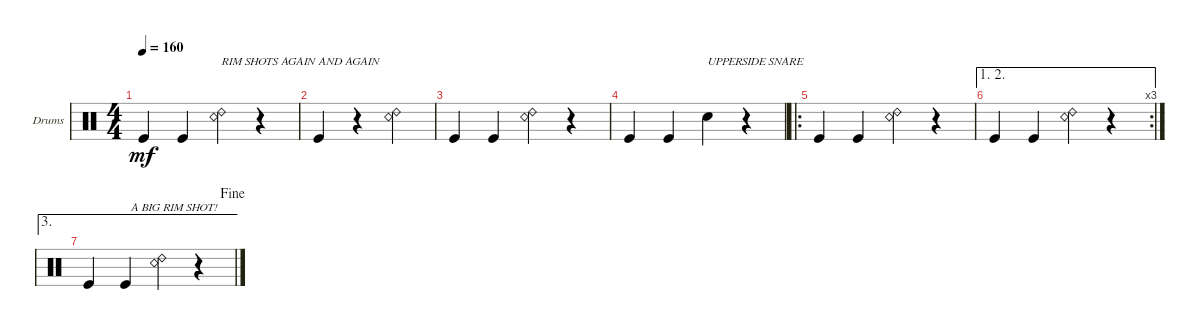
\defaultSystemsLayout 4
\bracketExtendMode groupsimilarinstruments
\firstSystemTrackNameOrientation horizontal
\otherSystemsTrackNameOrientation horizontal
\track ("Drumkit" "Drums") {instrument percussion}
\staff {score}
\articulation defaults
\ts (4 4)
\tempo 160
\clef neutral
\ks c "Kick (hit)".4{dy mf} "Kick (hit)".4
("Snare (rim shot)" "Ride (bell) 2").4{txt "RIM SHOTS AGAIN AND AGAIN"} r.4 |
"Kick (hit)".4 r.4 ("Snare (rim shot)" "Ride (bell) 2").4 |
"Kick (hit)".4 "Kick (hit)".4 ("Snare (rim shot)" "Ride (bell) 2").4 r.4 |
"Kick (hit)".4 "Kick (hit)".4 "Snare (hit) 2".4{txt "UPPERSIDE SNARE"} r.4 |
\ro "Kick (hit)".4 "Kick (hit)".4
("Snare (rim shot)" "Ride (bell) 2").4 r.4 |
\ae (1 2)
\rc 3 "Kick (hit)".4 "Kick (hit)".4
("Snare (rim shot)" "Ride (bell) 2").4 r.4 |
\ae 3
\jump fine "Kick (hit)".4{txt "              A BIG RIM SHOT!"} "Kick (hit)".4
("Snare (rim shot)" "Ride (bell) 2").4 r.4
